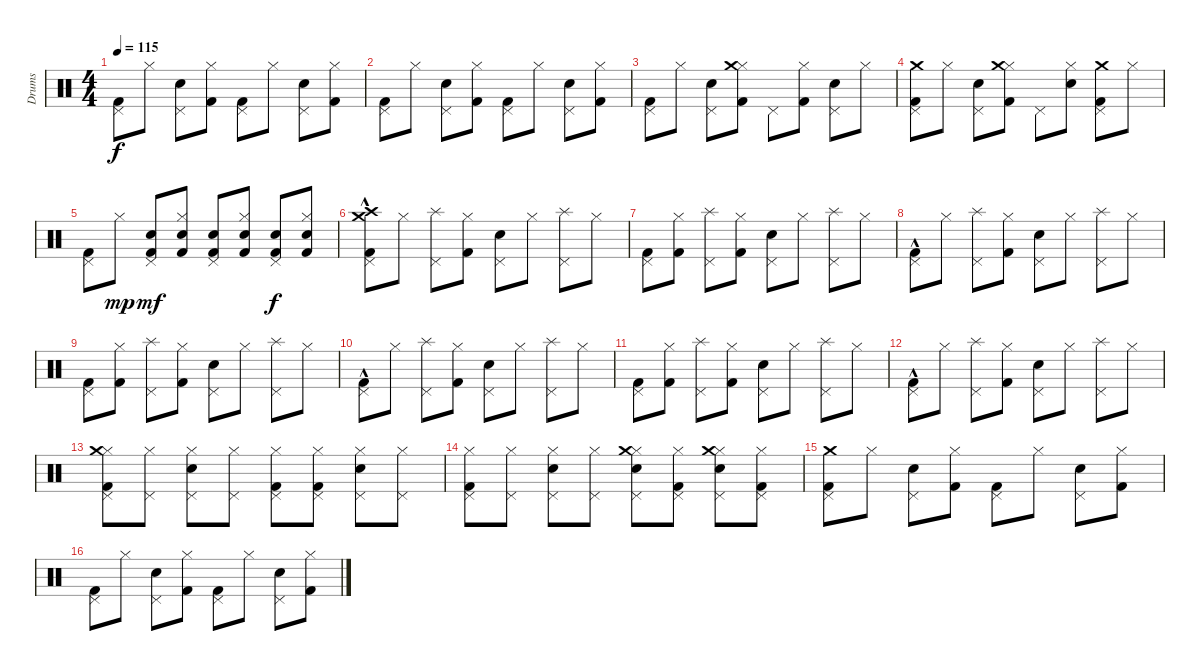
\track ("Drums" "Drums") {instrument percussion}
\staff {score}
\articulation defaults
\ts (4 4)
\tempo 115
\clef neutral
\ks c
("Pedal Hi-Hat (hit)" "Kick (hit) 2").8{dy f} "Hi-Hat (closed)".8 ("Pedal Hi-Hat (hit)" "Snare (hit) 2").8 ("Hi-Hat (closed)" "Kick (hit) 2").8 ("Pedal Hi-Hat (hit)" "Kick (hit) 2").8 "Hi-Hat (closed)".8 ("Pedal Hi-Hat (hit)" "Snare (hit) 2").8 ("Hi-Hat (closed)" "Kick (hit) 2").8 |
("Pedal Hi-Hat (hit)" "Kick (hit) 2").8 "Hi-Hat (closed)".8 ("Pedal Hi-Hat (hit)" "Snare (hit) 2").8 ("Hi-Hat (closed)" "Kick (hit) 2").8 ("Pedal Hi-Hat (hit)" "Kick (hit) 2").8 "Hi-Hat (closed)".8 ("Pedal Hi-Hat (hit)" "Snare (hit) 2").8 ("Hi-Hat (closed)" "Kick (hit) 2").8 |
("Pedal Hi-Hat (hit)" "Kick (hit) 2").8 "Hi-Hat (closed)".8 ("Pedal Hi-Hat (hit)" "Snare (hit) 2").8 ("Hi-Hat (closed)" "Crash medium (hit)" "Kick (hit) 2").8 "Pedal Hi-Hat (hit)".8 ("Hi-Hat (closed)" "Kick (hit) 2").8 ("Pedal Hi-Hat (hit)" "Snare (hit) 2").8 "Hi-Hat (closed)".8 |
("Pedal Hi-Hat (hit)" "Kick (hit) 2" "Crash medium (hit)").8 "Hi-Hat (closed)".8 ("Pedal Hi-Hat (hit)" "Snare (hit) 2").8 ("Hi-Hat (closed)" "Kick (hit) 2" "Crash medium (hit)").8 "Pedal Hi-Hat (hit)".8 ("Hi-Hat (closed)" "Snare (hit) 2").8 ("Pedal Hi-Hat (hit)" "Kick (hit) 2" "Crash medium (hit)").8 "Hi-Hat (closed)".8 |
("Pedal Hi-Hat (hit)" "Kick (hit) 2").8 "Hi-Hat (closed)".8{dy mp} ("Pedal Hi-Hat (hit)" "Snare (hit) 2" "Kick (hit) 2").8{dy mf} ("Hi-Hat (closed)" "Snare (hit) 2" "Kick (hit) 2").8 ("Pedal Hi-Hat (hit)" "Snare (hit) 2" "Kick (hit) 2").8 ("Hi-Hat (closed)" "Snare (hit) 2" "Kick (hit) 2").8 ("Pedal Hi-Hat (hit)" "Snare (hit) 2" "Kick (hit) 2").8{dy f} ("Hi-Hat (closed)" "Snare (hit) 2" "Kick (hit) 2").8 |
("Pedal Hi-Hat (hit)" "Kick (hit) 2"{hac} "Crash high (hit)" "Crash medium (hit)").8 "Hi-Hat (closed)".8 ("Pedal Hi-Hat (hit)" "Splash (hit)").8 ("Hi-Hat (closed)" "Kick (hit) 2").8 ("Pedal Hi-Hat (hit)" "Snare (hit) 2").8 "Hi-Hat (closed)".8 ("Pedal Hi-Hat (hit)" "Splash (hit)").8 "Hi-Hat (closed)".8 |
("Pedal Hi-Hat (hit)" "Kick (hit) 2").8 ("Hi-Hat (closed)" "Kick (hit) 2").8 ("Pedal Hi-Hat (hit)" "Splash (hit)").8 ("Hi-Hat (closed)" "Kick (hit) 2").8 ("Pedal Hi-Hat (hit)" "Snare (hit) 2").8 "Hi-Hat (closed)".8 ("Pedal Hi-Hat (hit)" "Splash (hit)").8 "Hi-Hat (closed)".8 |
("Pedal Hi-Hat (hit)" "Kick (hit) 2"{hac}).8 "Hi-Hat (closed)".8 ("Pedal Hi-Hat (hit)" "Splash (hit)").8 ("Hi-Hat (closed)" "Kick (hit) 2").8 ("Pedal Hi-Hat (hit)" "Snare (hit) 2").8 "Hi-Hat (closed)".8 ("Pedal Hi-Hat (hit)" "Splash (hit)").8 "Hi-Hat (closed)".8 |
("Kick (hit) 2" "Pedal Hi-Hat (hit)").8 ("Hi-Hat (closed)" "Kick (hit) 2").8 ("Splash (hit)" "Pedal Hi-Hat (hit)").8 ("Hi-Hat (closed)" "Kick (hit) 2").8 ("Snare (hit) 2" "Pedal Hi-Hat (hit)").8 "Hi-Hat (closed)".8 ("Splash (hit)" "Pedal Hi-Hat (hit)").8 "Hi-Hat (closed)".8 |
("Pedal Hi-Hat (hit)" "Kick (hit) 2"{hac}).8 "Hi-Hat (closed)".8 ("Splash (hit)" "Pedal Hi-Hat (hit)").8 ("Hi-Hat (closed)" "Kick (hit) 2").8 ("Snare (hit) 2" "Pedal Hi-Hat (hit)").8 "Hi-Hat (closed)".8 ("Splash (hit)" "Pedal Hi-Hat (hit)").8 "Hi-Hat (closed)".8 |
("Kick (hit) 2" "Pedal Hi-Hat (hit)").8 ("Hi-Hat (closed)" "Kick (hit) 2").8 ("Splash (hit)" "Pedal Hi-Hat (hit)").8 ("Hi-Hat (closed)" "Kick (hit) 2").8 ("Snare (hit) 2" "Pedal Hi-Hat (hit)").8 "Hi-Hat (closed)".8 ("Splash (hit)" "Pedal Hi-Hat (hit)").8 "Hi-Hat (closed)".8 |
("Kick (hit) 2"{hac} "Pedal Hi-Hat (hit)").8 "Hi-Hat (closed)".8 ("Splash (hit)" "Pedal Hi-Hat (hit)").8 ("Hi-Hat (closed)" "Kick (hit) 2").8 ("Snare (hit) 2" "Pedal Hi-Hat (hit)").8 "Hi-Hat (closed)".8 ("Splash (hit)" "Pedal Hi-Hat (hit)").8 "Hi-Hat (closed)".8 |
("Hi-Hat (closed)" "Pedal Hi-Hat (hit)" "Crash medium (hit)" "Kick (hit) 2").8 ("Pedal Hi-Hat (hit)" "Hi-Hat (closed)").8 ("Hi-Hat (closed)" "Pedal Hi-Hat (hit)" "Snare (hit) 2").8 ("Hi-Hat (closed)" "Pedal Hi-Hat (hit)").8 ("Hi-Hat (closed)" "Pedal Hi-Hat (hit)" "Kick (hit) 2").8 ("Pedal Hi-Hat (hit)" "Hi-Hat (closed)" "Kick (hit) 2").8 ("Hi-Hat (closed)" "Pedal Hi-Hat (hit)" "Snare (hit) 2").8 ("Hi-Hat (closed)" "Pedal Hi-Hat (hit)").8 |
("Hi-Hat (closed)" "Pedal Hi-Hat (hit)" "Kick (hit) 2").8 ("Hi-Hat (closed)" "Pedal Hi-Hat (hit)").8 ("Hi-Hat (closed)" "Pedal Hi-Hat (hit)" "Snare (hit) 2").8 ("Hi-Hat (closed)" "Pedal Hi-Hat (hit)").8 ("Hi-Hat (closed)" "Pedal Hi-Hat (hit)" "Snare (hit) 2" "Crash medium (hit)").8 ("Hi-Hat (closed)" "Pedal Hi-Hat (hit)" "Kick (hit) 2").8 ("Hi-Hat (closed)" "Pedal Hi-Hat (hit)" "Crash medium (hit)" "Snare (hit) 2").8 ("Hi-Hat (closed)" "Pedal Hi-Hat (hit)" "Kick (hit) 2").8 |
("Pedal Hi-Hat (hit)" "Kick (hit) 2" "Crash medium (hit)").8 "Hi-Hat (closed)".8 ("Pedal Hi-Hat (hit)" "Snare (hit) 2").8 ("Kick (hit) 2" "Hi-Hat (closed)").8 ("Pedal Hi-Hat (hit)" "Kick (hit) 2").8 "Hi-Hat (closed)".8 ("Pedal Hi-Hat (hit)" "Snare (hit) 2").8 ("Hi-Hat (closed)" "Kick (hit) 2").8 |
("Pedal Hi-Hat (hit)" "Kick (hit) 2").8 "Hi-Hat (closed)".8 ("Pedal Hi-Hat (hit)" "Snare (hit) 2").8 ("Hi-Hat (closed)" "Kick (hit) 2").8 ("Pedal Hi-Hat (hit)" "Kick (hit) 2").8 "Hi-Hat (closed)".8 ("Pedal Hi-Hat (hit)" "Snare (hit) 2").8 ("Hi-Hat (closed)" "Kick (hit) 2").8
